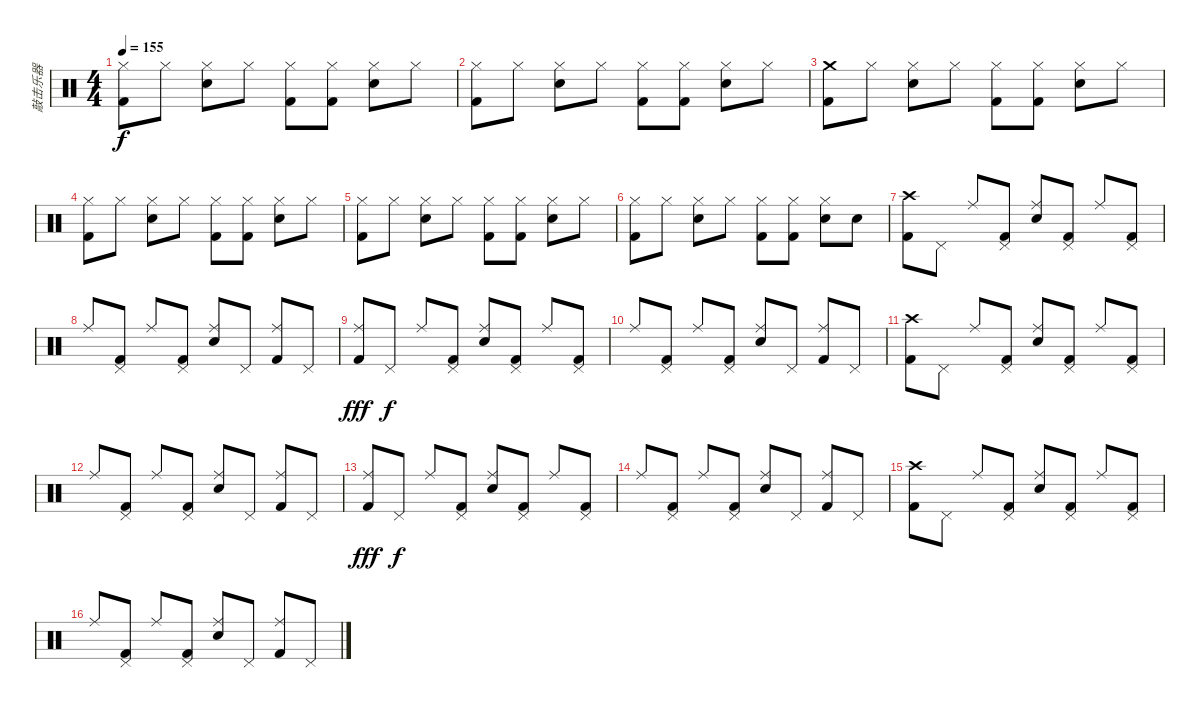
\track ("敲击乐器" "敲击乐器") {instrument percussion}
\staff {score}
\articulation defaults
\ts (4 4)
\tempo 155
\clef neutral
\ks c
("Hi-Hat (closed)" "Kick (hit) 2").8{dy f} "Hi-Hat (closed)".8 ("Hi-Hat (closed)" "Snare (hit) 2").8 "Hi-Hat (closed)".8 ("Hi-Hat (closed)" "Kick (hit) 2").8 ("Hi-Hat (closed)" "Kick (hit) 2").8 ("Hi-Hat (closed)" "Snare (hit) 2").8 "Hi-Hat (closed)".8 |
("Hi-Hat (closed)" "Kick (hit) 2").8 "Hi-Hat (closed)".8 ("Hi-Hat (closed)" "Snare (hit) 2").8 "Hi-Hat (closed)".8 ("Hi-Hat (closed)" "Kick (hit) 2").8 ("Hi-Hat (closed)" "Kick (hit) 2").8 ("Hi-Hat (closed)" "Snare (hit) 2").8 "Hi-Hat (closed)".8 |
("Crash medium (hit)" "Kick (hit) 2").8 "Hi-Hat (closed)".8 ("Hi-Hat (closed)" "Snare (hit) 2").8 "Hi-Hat (closed)".8 ("Hi-Hat (closed)" "Kick (hit) 2").8 ("Hi-Hat (closed)" "Kick (hit) 2").8 ("Hi-Hat (closed)" "Snare (hit) 2").8 "Hi-Hat (closed)".8 |
("Hi-Hat (closed)" "Kick (hit) 2").8 "Hi-Hat (closed)".8 ("Hi-Hat (closed)" "Snare (hit) 2").8 "Hi-Hat (closed)".8 ("Hi-Hat (closed)" "Kick (hit) 2").8 ("Hi-Hat (closed)" "Kick (hit) 2").8 ("Hi-Hat (closed)" "Snare (hit) 2").8 "Hi-Hat (closed)".8 |
("Hi-Hat (closed)" "Kick (hit) 2").8 "Hi-Hat (closed)".8 ("Hi-Hat (closed)" "Snare (hit) 2").8 "Hi-Hat (closed)".8 ("Hi-Hat (closed)" "Kick (hit) 2").8 ("Hi-Hat (closed)" "Kick (hit) 2").8 ("Hi-Hat (closed)" "Snare (hit) 2").8 "Hi-Hat (closed)".8 |
("Hi-Hat (closed)" "Kick (hit) 2").8 "Hi-Hat (closed)".8 ("Hi-Hat (closed)" "Snare (hit) 2").8 "Hi-Hat (closed)".8 ("Hi-Hat (closed)" "Kick (hit) 2").8 ("Hi-Hat (closed)" "Kick (hit) 2").8 ("Hi-Hat (closed)" "Snare (hit) 2").8 "Snare (hit) 2".8 |
("Crash high (hit)" "Kick (hit) 2").8 "Pedal Hi-Hat (hit)".8 "Ride (middle)".8 ("Pedal Hi-Hat (hit)" "Kick (hit) 2").8 ("Ride (middle)" "Snare (hit) 2").8 ("Pedal Hi-Hat (hit)" "Kick (hit) 2").8 "Ride (middle)".8 ("Pedal Hi-Hat (hit)" "Kick (hit) 2").8 |
"Ride (middle)".8 ("Pedal Hi-Hat (hit)" "Kick (hit) 2").8 "Ride (middle)".8 ("Pedal Hi-Hat (hit)" "Kick (hit) 2").8 ("Ride (middle)" "Snare (hit) 2").8 "Pedal Hi-Hat (hit)".8 ("Ride (middle)" "Kick (hit) 2").8 "Pedal Hi-Hat (hit)".8 |
("Ride (middle)" "Kick (hit) 2").8{dy fff} "Pedal Hi-Hat (hit)".8{dy f} "Ride (middle)".8 ("Pedal Hi-Hat (hit)" "Kick (hit) 2").8 ("Ride (middle)" "Snare (hit) 2").8 ("Pedal Hi-Hat (hit)" "Kick (hit) 2").8 "Ride (middle)".8 ("Pedal Hi-Hat (hit)" "Kick (hit) 2").8 |
"Ride (middle)".8 ("Pedal Hi-Hat (hit)" "Kick (hit) 2").8 "Ride (middle)".8 ("Pedal Hi-Hat (hit)" "Kick (hit) 2").8 ("Ride (middle)" "Snare (hit) 2").8 "Pedal Hi-Hat (hit)".8 ("Ride (middle)" "Kick (hit) 2").8 "Pedal Hi-Hat (hit)".8 |
("Crash high (hit)" "Kick (hit) 2").8 "Pedal Hi-Hat (hit)".8 "Ride (middle)".8 ("Pedal Hi-Hat (hit)" "Kick (hit) 2").8 ("Ride (middle)" "Snare (hit) 2").8 ("Pedal Hi-Hat (hit)" "Kick (hit) 2").8 "Ride (middle)".8 ("Pedal Hi-Hat (hit)" "Kick (hit) 2").8 |
"Ride (middle)".8 ("Pedal Hi-Hat (hit)" "Kick (hit) 2").8 "Ride (middle)".8 ("Pedal Hi-Hat (hit)" "Kick (hit) 2").8 ("Ride (middle)" "Snare (hit) 2").8 "Pedal Hi-Hat (hit)".8 ("Ride (middle)" "Kick (hit) 2").8 "Pedal Hi-Hat (hit)".8 |
("Ride (middle)" "Kick (hit) 2").8{dy fff} "Pedal Hi-Hat (hit)".8{dy f} "Ride (middle)".8 ("Pedal Hi-Hat (hit)" "Kick (hit) 2").8 ("Ride (middle)" "Snare (hit) 2").8 ("Pedal Hi-Hat (hit)" "Kick (hit) 2").8 "Ride (middle)".8 ("Pedal Hi-Hat (hit)" "Kick (hit) 2").8 |
"Ride (middle)".8 ("Pedal Hi-Hat (hit)" "Kick (hit) 2").8 "Ride (middle)".8 ("Pedal Hi-Hat (hit)" "Kick (hit) 2").8 ("Ride (middle)" "Snare (hit) 2").8 "Pedal Hi-Hat (hit)".8 ("Ride (middle)" "Kick (hit) 2").8 "Pedal Hi-Hat (hit)".8 |
("Crash high (hit)" "Kick (hit) 2").8 "Pedal Hi-Hat (hit)".8 "Ride (middle)".8 ("Pedal Hi-Hat (hit)" "Kick (hit) 2").8 ("Ride (middle)" "Snare (hit) 2").8 ("Pedal Hi-Hat (hit)" "Kick (hit) 2").8 "Ride (middle)".8 ("Pedal Hi-Hat (hit)" "Kick (hit) 2").8 |
"Ride (middle)".8 ("Pedal Hi-Hat (hit)" "Kick (hit) 2").8 "Ride (middle)".8 ("Pedal Hi-Hat (hit)" "Kick (hit) 2").8 ("Ride (middle)" "Snare (hit) 2").8 "Pedal Hi-Hat (hit)".8 ("Ride (middle)" "Kick (hit) 2").8 "Pedal Hi-Hat (hit)".8
